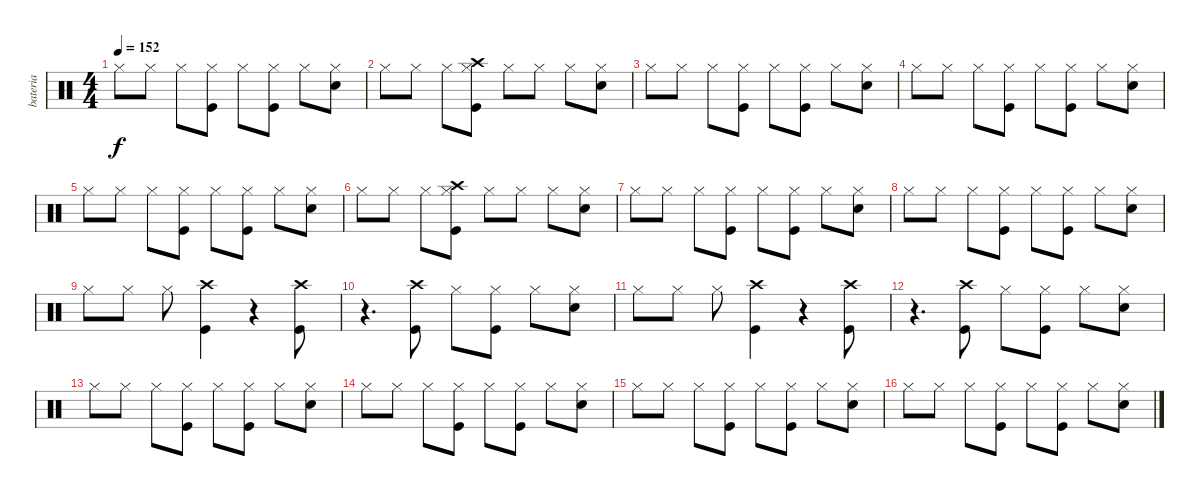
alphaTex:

\track ("bateria" "bateria") {instrument percussion}
\staff {score}
\articulation defaults
\ts (4 4)
\tempo 152
\clef neutral
\ks c "Hi-Hat (closed)".8{dy f} "Hi-Hat (closed)".8 "Hi-Hat (closed)".8
("Hi-Hat (closed)" "Kick (hit)").8 "Hi-Hat (closed)".8 ("Hi-Hat (closed)" "Kick (hit)").8 "Hi-Hat (closed)".8 ("Hi-Hat (closed)" "Electric Snare (hit)").8 |
"Hi-Hat (closed)".8 "Hi-Hat (closed)".8 "Hi-Hat (closed)".8 ("Hi-Hat (closed)" "Kick (hit)" "Crash high (hit)").8 "Hi-Hat (closed)".8 "Hi-Hat (closed)".8 "Hi-Hat (closed)".8 ("Hi-Hat (closed)" "Electric Snare (hit)").8 |
"Hi-Hat (closed)".8 "Hi-Hat (closed)".8 "Hi-Hat (closed)".8 ("Hi-Hat (closed)" "Kick (hit)").8 "Hi-Hat (closed)".8 ("Hi-Hat (closed)" "Kick (hit)").8 "Hi-Hat (closed)".8 ("Hi-Hat (closed)" "Electric Snare (hit)").8 |
"Hi-Hat (closed)".8 "Hi-Hat (closed)".8 "Hi-Hat (closed)".8 ("Hi-Hat (closed)" "Kick (hit)").8 "Hi-Hat (closed)".8 ("Hi-Hat (closed)" "Kick (hit)").8 "Hi-Hat (closed)".8 ("Hi-Hat (closed)" "Electric Snare (hit)").8 |
"Hi-Hat (closed)".8 "Hi-Hat (closed)".8 "Hi-Hat (closed)".8 ("Hi-Hat (closed)" "Kick (hit)").8 "Hi-Hat (closed)".8 ("Hi-Hat (closed)" "Kick (hit)").8 "Hi-Hat (closed)".8 ("Hi-Hat (closed)" "Electric Snare (hit)").8 |
"Hi-Hat (closed)".8 "Hi-Hat (closed)".8 "Hi-Hat (closed)".8 ("Hi-Hat (closed)" "Kick (hit)" "Crash high (hit)").8 "Hi-Hat (closed)".8 "Hi-Hat (closed)".8 "Hi-Hat (closed)".8 ("Hi-Hat (closed)" "Electric Snare (hit)").8 |
"Hi-Hat (closed)".8 "Hi-Hat (closed)".8 "Hi-Hat (closed)".8 ("Hi-Hat (closed)" "Kick (hit)").8 "Hi-Hat (closed)".8 ("Hi-Hat (closed)" "Kick (hit)").8 "Hi-Hat (closed)".8 ("Hi-Hat (closed)" "Electric Snare (hit)").8 |
"Hi-Hat (closed)".8 "Hi-Hat (closed)".8 "Hi-Hat (closed)".8 ("Hi-Hat (closed)" "Kick (hit)").8 "Hi-Hat (closed)".8 ("Hi-Hat (closed)" "Kick (hit)").8 "Hi-Hat (closed)".8 ("Hi-Hat (closed)" "Electric Snare (hit)").8 |
"Hi-Hat (closed)".8 "Hi-Hat (closed)".8 "Hi-Hat (closed)".8 ("Crash high (hit)" "Kick (hit)").4 r.4 ("Crash high (hit)" "Kick (hit)").8 |
r.4{d} ("Crash high (hit)" "Kick (hit)").8 "Hi-Hat (closed)".8 ("Hi-Hat (closed)" "Kick (hit)").8 "Hi-Hat (closed)".8 ("Hi-Hat (closed)" "Electric Snare (hit)").8 |
"Hi-Hat (closed)".8 "Hi-Hat (closed)".8 "Hi-Hat (closed)".8 ("Crash high (hit)" "Kick (hit)").4 r.4 ("Crash high (hit)" "Kick (hit)").8 |
r.4{d} ("Crash high (hit)" "Kick (hit)").8 "Hi-Hat (closed)".8 ("Hi-Hat (closed)" "Kick (hit)").8 "Hi-Hat (closed)".8 ("Hi-Hat (closed)" "Electric Snare (hit)").8 |
"Hi-Hat (closed)".8 "Hi-Hat (closed)".8 "Hi-Hat (closed)".8 ("Hi-Hat (closed)" "Kick (hit)").8 "Hi-Hat (closed)".8 ("Hi-Hat (closed)" "Kick (hit)").8 "Hi-Hat (closed)".8 ("Hi-Hat (closed)" "Electric Snare (hit)").8 |
"Hi-Hat (closed)".8 "Hi-Hat (closed)".8 "Hi-Hat (closed)".8 ("Hi-Hat (closed)" "Kick (hit)").8 "Hi-Hat (closed)".8 ("Hi-Hat (closed)" "Kick (hit)").8 "Hi-Hat (closed)".8 ("Hi-Hat (closed)" "Electric Snare (hit)").8 |
"Hi-Hat (closed)".8 "Hi-Hat (closed)".8 "Hi-Hat (closed)".8 ("Hi-Hat (closed)" "Kick (hit)").8 "Hi-Hat (closed)".8 ("Hi-Hat (closed)" "Kick (hit)").8 "Hi-Hat (closed)".8 ("Hi-Hat (closed)" "Electric Snare (hit)").8 |
"Hi-Hat (closed)".8 "Hi-Hat (closed)".8 "Hi-Hat (closed)".8 ("Hi-Hat (closed)" "Kick (hit)").8 "Hi-Hat (closed)".8 ("Hi-Hat (closed)" "Kick (hit)").8 "Hi-Hat (closed)".8 ("Hi-Hat (closed)" "Electric Snare (hit)").8
